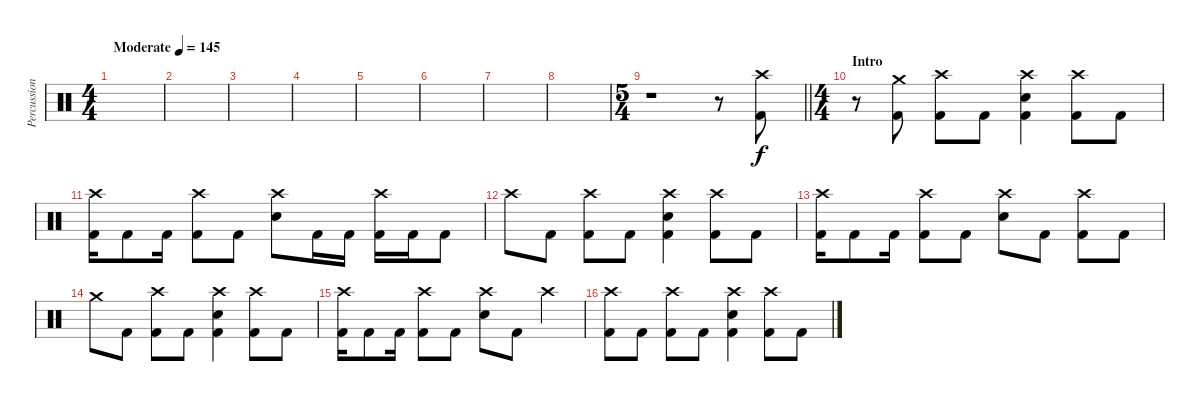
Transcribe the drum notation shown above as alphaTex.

\track ("Percussions" "Percussion") {instrument percussion}
\staff {score}
\articulation defaults
\ts (4 4)
\tempo (145 "Moderate")
\clef neutral
\ks c
|
|
|
|
|
|
|
|
\ts (5 4)
\barLineRight lightlight
r.1 r.8 ("Crash high (hit)" "Kick (hit) 2").8 |
\ts (4 4)
\section ("" "Intro")
r.8 ("Crash medium (hit)" "Kick (hit) 2").8 ("Crash high (hit)" "Kick (hit) 2").8 "Kick (hit) 2".8 ("Crash high (hit)" "Electric Snare (hit)" "Kick (hit) 2").4 ("Crash high (hit)" "Kick (hit) 2").8 "Kick (hit) 2".8 |
("Crash high (hit)" "Kick (hit) 2").16 "Kick (hit) 2".8 "Kick (hit) 2".16 ("Crash high (hit)" "Kick (hit) 2").8 "Kick (hit) 2".8 ("Crash high (hit)" "Electric Snare (hit)").8 "Kick (hit) 2".16 "Kick (hit) 2".16 ("Crash high (hit)" "Kick (hit) 2").16 "Kick (hit) 2".16 "Kick (hit) 2".8 |
"Crash high (hit)".8 "Kick (hit) 2".8 ("Crash high (hit)" "Kick (hit) 2").8 "Kick (hit) 2".8 ("Crash high (hit)" "Electric Snare (hit)" "Kick (hit) 2").4 ("Crash high (hit)" "Kick (hit) 2").8 "Kick (hit) 2".8 |
("Crash high (hit)" "Kick (hit) 2").16 "Kick (hit) 2".8 "Kick (hit) 2".16 ("Crash high (hit)" "Kick (hit) 2").8 "Kick (hit) 2".8 ("Crash high (hit)" "Electric Snare (hit)").8 "Kick (hit) 2".8 ("Crash high (hit)" "Kick (hit) 2").8 "Kick (hit) 2".8 |
"Crash medium (hit)".8 "Kick (hit) 2".8 ("Crash high (hit)" "Kick (hit) 2").8 "Kick (hit) 2".8 ("Crash high (hit)" "Electric Snare (hit)" "Kick (hit) 2").4 ("Crash high (hit)" "Kick (hit) 2").8 "Kick (hit) 2".8 |
("Crash high (hit)" "Kick (hit) 2").16 "Kick (hit) 2".8 "Kick (hit) 2".16 ("Crash high (hit)" "Kick (hit) 2").8 "Kick (hit) 2".8 ("Crash high (hit)" "Electric Snare (hit)").8 "Kick (hit) 2".8 "Crash high (hit)".4 |
("Crash high (hit)" "Kick (hit) 2").8 "Kick (hit) 2".8 ("Crash high (hit)" "Kick (hit) 2").8 "Kick (hit) 2".8 ("Crash high (hit)" "Electric Snare (hit)" "Kick (hit) 2").4 ("Crash high (hit)" "Kick (hit) 2").8 "Kick (hit) 2".8
